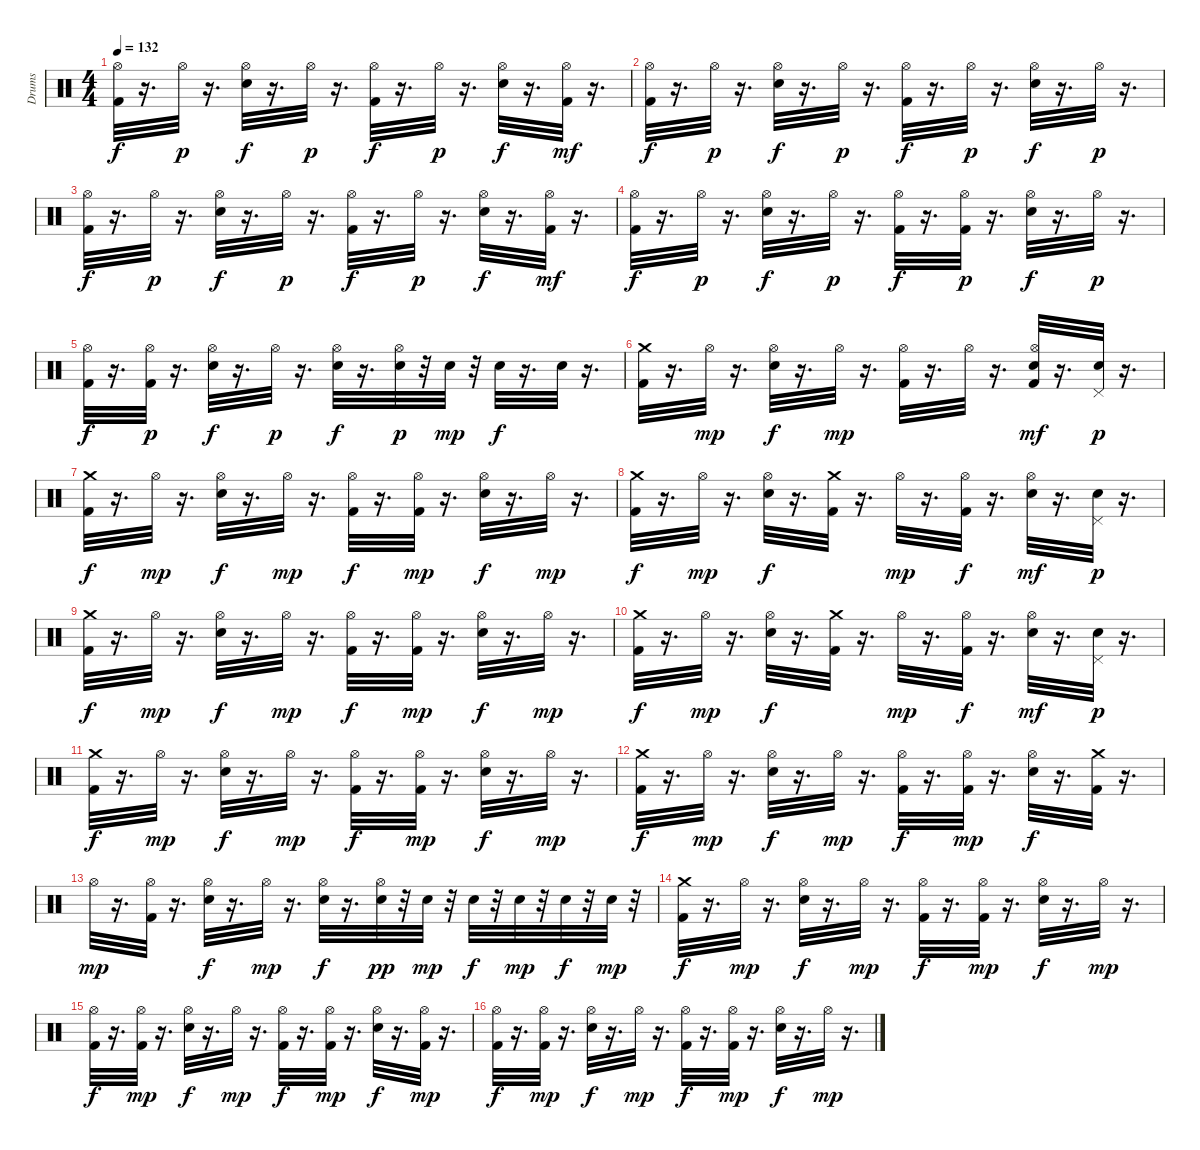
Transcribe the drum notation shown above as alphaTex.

\track ("Drums" "Drums") {instrument percussion}
\staff {score}
\articulation defaults
\ts (4 4)
\tempo 132
\clef neutral
\ks c
("Kick (hit) 2" "Hi-Hat (open)").32{dy f} r.16{d} "Hi-Hat (open)".32{dy p} r.16{d} ("Hi-Hat (open)" "Electric Snare (hit)").32{dy f} r.16{d} "Hi-Hat (open)".32{dy p} r.16{d} ("Kick (hit) 2" "Hi-Hat (open)").32{dy f} r.16{d} "Hi-Hat (open)".32{dy p} r.16{d} ("Electric Snare (hit)" "Hi-Hat (open)").32{dy f} r.16{d} ("Hi-Hat (open)" "Kick (hit) 2").32{dy mf} r.16{d} |
("Hi-Hat (open)" "Kick (hit) 2").32{dy f} r.16{d} "Hi-Hat (open)".32{dy p} r.16{d} ("Hi-Hat (open)" "Electric Snare (hit)").32{dy f} r.16{d} "Hi-Hat (open)".32{dy p} r.16{d} ("Hi-Hat (open)" "Kick (hit) 2").32{dy f} r.16{d} "Hi-Hat (open)".32{dy p} r.16{d} ("Hi-Hat (open)" "Electric Snare (hit)").32{dy f} r.16{d} "Hi-Hat (open)".32{dy p} r.16{d} |
("Kick (hit) 2" "Hi-Hat (open)").32{dy f} r.16{d} "Hi-Hat (open)".32{dy p} r.16{d} ("Hi-Hat (open)" "Electric Snare (hit)").32{dy f} r.16{d} "Hi-Hat (open)".32{dy p} r.16{d} ("Hi-Hat (open)" "Kick (hit) 2").32{dy f} r.16{d} "Hi-Hat (open)".32{dy p} r.16{d} ("Hi-Hat (open)" "Electric Snare (hit)").32{dy f} r.16{d} ("Hi-Hat (open)" "Kick (hit) 2").32{dy mf} r.16{d} |
("Hi-Hat (open)" "Kick (hit) 2").32{dy f} r.16{d} "Hi-Hat (open)".32{dy p} r.16{d} ("Hi-Hat (open)" "Electric Snare (hit)").32{dy f} r.16{d} "Hi-Hat (open)".32{dy p} r.16{d} ("Hi-Hat (open)" "Kick (hit) 2").32{dy f} r.16{d} ("Kick (hit) 2" "Hi-Hat (open)").32{dy p} r.16{d} ("Hi-Hat (open)" "Electric Snare (hit)").32{dy f} r.16{d} "Hi-Hat (open)".32{dy p} r.16{d} |
("Hi-Hat (open)" "Kick (hit) 2").32{dy f} r.16{d} ("Kick (hit) 2" "Hi-Hat (open)").32{dy p} r.16{d} ("Electric Snare (hit)" "Hi-Hat (open)").32{dy f} r.16{d} "Hi-Hat (open)".32{dy p} r.16{d} ("Electric Snare (hit)" "Hi-Hat (open)").32{dy f} r.16{d} ("Electric Snare (hit)" "Hi-Hat (open)").32{dy p} r.32 "Electric Snare (hit)".32{dy mp} r.32 "Electric Snare (hit)".32{dy f} r.16{d} "Electric Snare (hit)".32 r.16{d} |
("Crash medium (hit)" "Kick (hit) 2").32 r.16{d} "Hi-Hat (open)".32{dy mp} r.16{d} ("Hi-Hat (open)" "Electric Snare (hit)").32{dy f} r.16{d} "Hi-Hat (open)".32{dy mp} r.16{d} ("Hi-Hat (open)" "Kick (hit) 2").32 r.16{d} "Hi-Hat (open)".32 r.16{d} ("Kick (hit) 2" "Hi-Hat (open)" "Electric Snare (hit)").32{dy mf} r.16{d} ("Pedal Hi-Hat (hit)" "Electric Snare (hit)").32{dy p} r.16{d} |
("Crash medium (hit)" "Kick (hit) 2").32{dy f} r.16{d} "Hi-Hat (open)".32{dy mp} r.16{d} ("Electric Snare (hit)" "Hi-Hat (open)").32{dy f} r.16{d} "Hi-Hat (open)".32{dy mp} r.16{d} ("Hi-Hat (open)" "Kick (hit) 2").32{dy f} r.16{d} ("Hi-Hat (open)" "Kick (hit) 2").32{dy mp} r.16{d} ("Electric Snare (hit)" "Hi-Hat (open)").32{dy f} r.16{d} "Hi-Hat (open)".32{dy mp} r.16{d} |
("Crash medium (hit)" "Kick (hit) 2").32{dy f} r.16{d} "Hi-Hat (open)".32{dy mp} r.16{d} ("Electric Snare (hit)" "Hi-Hat (open)").32{dy f} r.16{d} ("Crash medium (hit)" "Kick (hit) 2").32 r.16{d} "Hi-Hat (open)".32{dy mp} r.16{d} ("Hi-Hat (open)" "Kick (hit) 2").32{dy f} r.16{d} ("Hi-Hat (open)" "Electric Snare (hit)").32{dy mf} r.16{d} ("Pedal Hi-Hat (hit)" "Electric Snare (hit)").32{dy p} r.16{d} |
("Kick (hit) 2" "Crash medium (hit)").32{dy f} r.16{d} "Hi-Hat (open)".32{dy mp} r.16{d} ("Hi-Hat (open)" "Electric Snare (hit)").32{dy f} r.16{d} "Hi-Hat (open)".32{dy mp} r.16{d} ("Kick (hit) 2" "Hi-Hat (open)").32{dy f} r.16{d} ("Kick (hit) 2" "Hi-Hat (open)").32{dy mp} r.16{d} ("Electric Snare (hit)" "Hi-Hat (open)").32{dy f} r.16{d} "Hi-Hat (open)".32{dy mp} r.16{d} |
("Crash medium (hit)" "Kick (hit) 2").32{dy f} r.16{d} "Hi-Hat (open)".32{dy mp} r.16{d} ("Hi-Hat (open)" "Electric Snare (hit)").32{dy f} r.16{d} ("Crash medium (hit)" "Kick (hit) 2").32 r.16{d} "Hi-Hat (open)".32{dy mp} r.16{d} ("Hi-Hat (open)" "Kick (hit) 2").32{dy f} r.16{d} ("Hi-Hat (open)" "Electric Snare (hit)").32{dy mf} r.16{d} ("Electric Snare (hit)" "Pedal Hi-Hat (hit)").32{dy p} r.16{d} |
("Kick (hit) 2" "Crash medium (hit)").32{dy f} r.16{d} "Hi-Hat (open)".32{dy mp} r.16{d} ("Electric Snare (hit)" "Hi-Hat (open)").32{dy f} r.16{d} "Hi-Hat (open)".32{dy mp} r.16{d} ("Hi-Hat (open)" "Kick (hit) 2").32{dy f} r.16{d} ("Hi-Hat (open)" "Kick (hit) 2").32{dy mp} r.16{d} ("Hi-Hat (open)" "Electric Snare (hit)").32{dy f} r.16{d} "Hi-Hat (open)".32{dy mp} r.16{d} |
("Crash medium (hit)" "Kick (hit) 2").32{dy f} r.16{d} "Hi-Hat (open)".32{dy mp} r.16{d} ("Hi-Hat (open)" "Electric Snare (hit)").32{dy f} r.16{d} "Hi-Hat (open)".32{dy mp} r.16{d} ("Hi-Hat (open)" "Kick (hit) 2").32{dy f} r.16{d} ("Hi-Hat (open)" "Kick (hit) 2").32{dy mp} r.16{d} ("Electric Snare (hit)" "Hi-Hat (open)").32{dy f} r.16{d} ("Crash medium (hit)" "Kick (hit) 2").32 r.16{d} |
"Hi-Hat (open)".32{dy mp} r.16{d} ("Kick (hit) 2" "Hi-Hat (open)").32 r.16{d} ("Electric Snare (hit)" "Hi-Hat (open)").32{dy f} r.16{d} "Hi-Hat (open)".32{dy mp} r.16{d} ("Hi-Hat (open)" "Electric Snare (hit)").32{dy f} r.16{d} ("Hi-Hat (open)" "Electric Snare (hit)").32{dy pp} r.32 "Electric Snare (hit)".32{dy mp} r.32 "Electric Snare (hit)".32{dy f} r.32 "Electric Snare (hit)".32{dy mp} r.32 "Electric Snare (hit)".32{dy f} r.32 "Electric Snare (hit)".32{dy mp} r.32 |
("Crash medium (hit)" "Kick (hit) 2").32{dy f} r.16{d} "Hi-Hat (open)".32{dy mp} r.16{d} ("Electric Snare (hit)" "Hi-Hat (open)").32{dy f} r.16{d} "Hi-Hat (open)".32{dy mp} r.16{d} ("Hi-Hat (open)" "Kick (hit) 2").32{dy f} r.16{d} ("Kick (hit) 2" "Hi-Hat (open)").32{dy mp} r.16{d} ("Hi-Hat (open)" "Electric Snare (hit)").32{dy f} r.16{d} "Hi-Hat (open)".32{dy mp} r.16{d} |
("Kick (hit) 2" "Hi-Hat (open)").32{dy f} r.16{d} ("Kick (hit) 2" "Hi-Hat (open)").32{dy mp} r.16{d} ("Hi-Hat (open)" "Electric Snare (hit)").32{dy f} r.16{d} "Hi-Hat (open)".32{dy mp} r.16{d} ("Kick (hit) 2" "Hi-Hat (open)").32{dy f} r.16{d} ("Hi-Hat (open)" "Kick (hit) 2").32{dy mp} r.16{d} ("Hi-Hat (open)" "Electric Snare (hit)").32{dy f} r.16{d} ("Kick (hit) 2" "Hi-Hat (open)").32{dy mp} r.16{d} |
("Hi-Hat (open)" "Kick (hit) 2").32{dy f} r.16{d} ("Kick (hit) 2" "Hi-Hat (open)").32{dy mp} r.16{d} ("Hi-Hat (open)" "Electric Snare (hit)").32{dy f} r.16{d} "Hi-Hat (open)".32{dy mp} r.16{d} ("Hi-Hat (open)" "Kick (hit) 2").32{dy f} r.16{d} ("Kick (hit) 2" "Hi-Hat (open)").32{dy mp} r.16{d} ("Hi-Hat (open)" "Electric Snare (hit)").32{dy f} r.16{d} "Hi-Hat (open)".32{dy mp} r.16{d}
